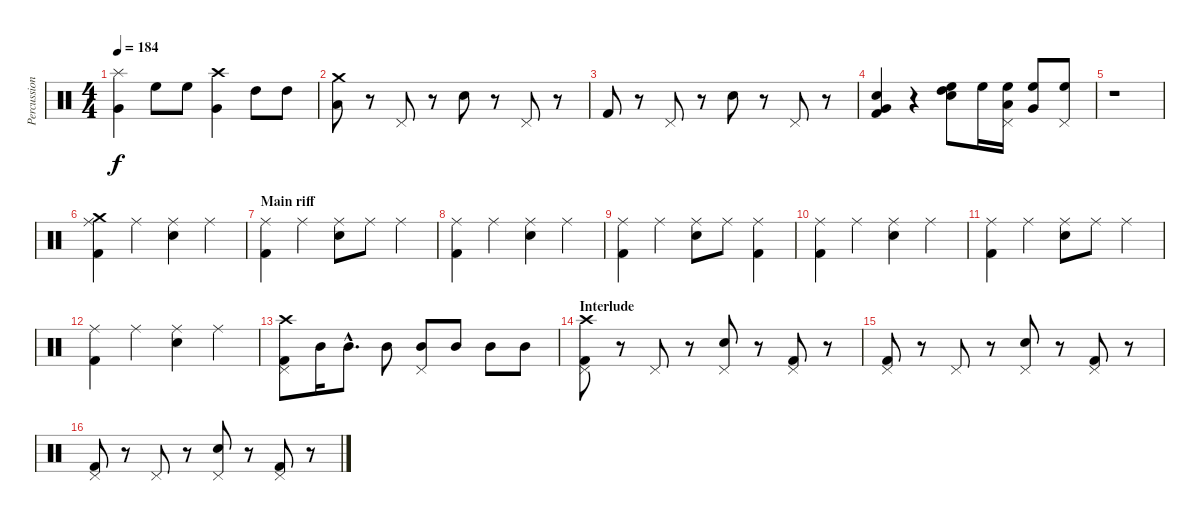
\track ("Percussion" "Percussion") {instrument percussion}
\staff {score}
\articulation defaults
\ts (4 4)
\tempo 184
\clef neutral
\ks c
("Very Low Tom (hit)" "Splash (hit)").4{dy f} "High Floor Tom (hit)".8 "High Floor Tom (hit)".8 ("Very Low Tom (hit)" "Crash high (hit)").4 "High Tom (hit)".8 "High Tom (hit)".8 |
("Low Floor Tom (hit)" "Crash medium (hit)").8 r.8 "Pedal Hi-Hat (hit)".8 r.8 "Snare (hit) 2".8 r.8 "Pedal Hi-Hat (hit)".8 r.8 |
"Kick (hit) 2".8 r.8 "Pedal Hi-Hat (hit)".8 r.8 "Snare (hit) 2".8 r.8 "Pedal Hi-Hat (hit)".8 r.8 |
("Kick (hit) 2" "Snare (hit) 2" "Very Low Tom (hit)").4 r.4 ("Snare (hit) 2" "High Tom (hit)" "High Floor Tom (hit)").8 "High Floor Tom (hit)".16 ("Low Tom (hit)" "Pedal Hi-Hat (hit)" "High Floor Tom (hit)").16 ("Very Low Tom (hit)" "High Floor Tom (hit)").8 ("Pedal Hi-Hat (hit)" "High Floor Tom (hit)").8 |
r.1 |
("Kick (hit) 2" "Crash medium (hit)" "Ride (middle)").4 "Ride (middle)".4 ("Snare (hit) 2" "Ride (middle)").4 "Ride (middle)".4 |
\section ("" "Main riff")
("Kick (hit) 2" "Ride (middle)").4 "Ride (middle)".4 ("Snare (hit) 2" "Ride (middle)").8 "Ride (middle)".8 "Ride (middle)".4 |
("Kick (hit) 2" "Ride (middle)").4 "Ride (middle)".4 ("Snare (hit) 2" "Ride (middle)").4 "Ride (middle)".4 |
("Kick (hit) 2" "Ride (middle)").4 "Ride (middle)".4 ("Snare (hit) 2" "Ride (middle)").8 "Ride (middle)".8 ("Kick (hit) 2" "Ride (middle)").4 |
("Kick (hit) 2" "Ride (middle)").4 "Ride (middle)".4 ("Snare (hit) 2" "Ride (middle)").4 "Ride (middle)".4 |
("Kick (hit) 2" "Ride (middle)").4 "Ride (middle)".4 ("Snare (hit) 2" "Ride (middle)").8 "Ride (middle)".8 "Ride (middle)".4 |
("Kick (hit) 2" "Ride (middle)").4 "Ride (middle)".4 ("Snare (hit) 2" "Ride (middle)").4 "Ride (middle)".4 |
("Kick (hit) 2" "Pedal Hi-Hat (hit)" "Crash high (hit)").8 "Mid Tom (hit)".16 "Mid Tom (hit)"{hac}.8{d} "Mid Tom (hit)".8 ("Mid Tom (hit)" "Pedal Hi-Hat (hit)").8 "Mid Tom (hit)".8 "Mid Tom (hit)".8 "Mid Tom (hit)".8 |
\section ("" "Interlude")
("Kick (hit) 2" "Crash high (hit)" "Pedal Hi-Hat (hit)").8 r.8 "Pedal Hi-Hat (hit)".8 r.8 ("Snare (hit) 2" "Pedal Hi-Hat (hit)").8 r.8 ("Kick (hit) 2" "Pedal Hi-Hat (hit)").8 r.8 |
("Kick (hit) 2" "Pedal Hi-Hat (hit)").8 r.8 "Pedal Hi-Hat (hit)".8 r.8 ("Snare (hit) 2" "Pedal Hi-Hat (hit)").8 r.8 ("Kick (hit) 2" "Pedal Hi-Hat (hit)").8 r.8 |
("Kick (hit) 2" "Pedal Hi-Hat (hit)").8 r.8 "Pedal Hi-Hat (hit)".8 r.8 ("Snare (hit) 2" "Pedal Hi-Hat (hit)").8 r.8 ("Kick (hit) 2" "Pedal Hi-Hat (hit)").8 r.8
